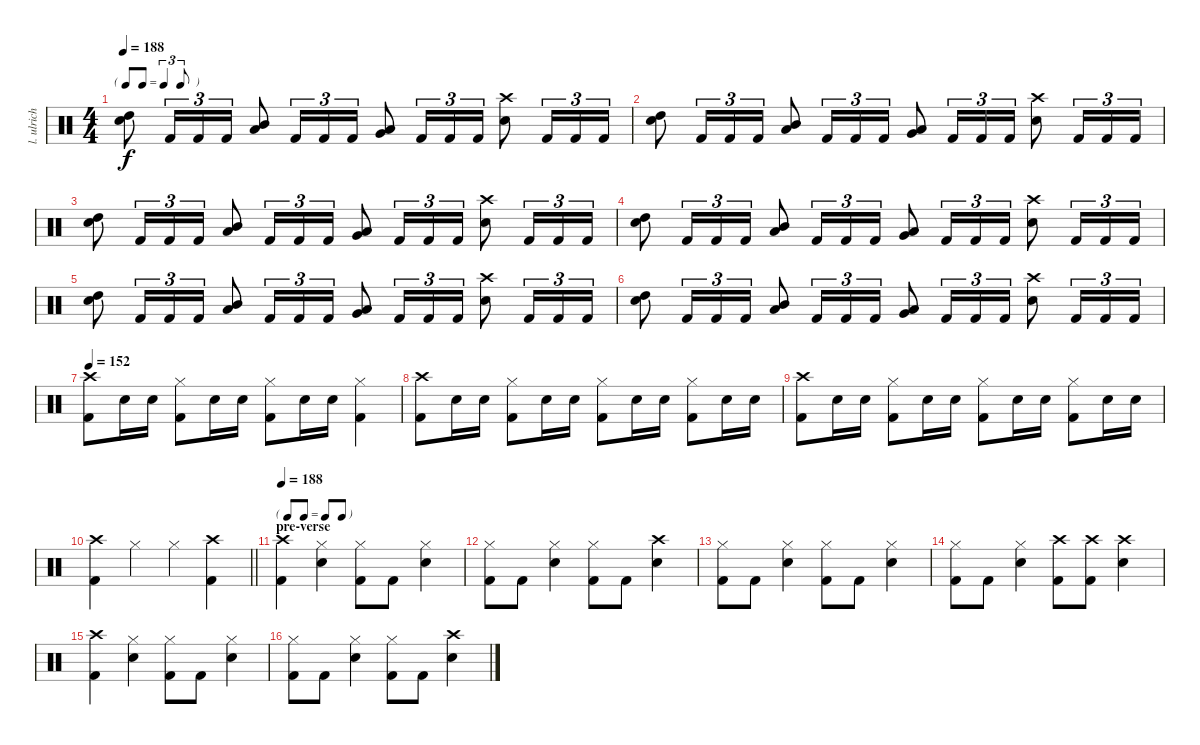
\track ("l. ulrich - drums" "l. ulrich ") {instrument percussion}
\staff {score}
\articulation defaults
\ts (4 4)
\tf triplet8th
\tempo 188
\clef neutral
\ks c
("Snare (hit) 2" "High Tom (hit)").8{dy f} "Kick (hit) 2".16{tu (3 2)} "Kick (hit) 2".16{tu (3 2)} "Kick (hit) 2".16{tu (3 2)} ("Mid Tom (hit)" "Low Tom (hit)").8 "Kick (hit) 2".16{tu (3 2)} "Kick (hit) 2".16{tu (3 2)} "Kick (hit) 2".16{tu (3 2)} ("Low Tom (hit)" "Very Low Tom (hit)").8 "Kick (hit) 2".16{tu (3 2)} "Kick (hit) 2".16{tu (3 2)} "Kick (hit) 2".16{tu (3 2)} ("Crash high (hit)" "Snare (hit) 2").8 "Kick (hit) 2".16{tu (3 2)} "Kick (hit) 2".16{tu (3 2)} "Kick (hit) 2".16{tu (3 2)} |
("Snare (hit) 2" "High Tom (hit)").8 "Kick (hit) 2".16{tu (3 2)} "Kick (hit) 2".16{tu (3 2)} "Kick (hit) 2".16{tu (3 2)} ("Mid Tom (hit)" "Low Tom (hit)").8 "Kick (hit) 2".16{tu (3 2)} "Kick (hit) 2".16{tu (3 2)} "Kick (hit) 2".16{tu (3 2)} ("Low Tom (hit)" "Very Low Tom (hit)").8 "Kick (hit) 2".16{tu (3 2)} "Kick (hit) 2".16{tu (3 2)} "Kick (hit) 2".16{tu (3 2)} ("Crash high (hit)" "Snare (hit) 2").8 "Kick (hit) 2".16{tu (3 2)} "Kick (hit) 2".16{tu (3 2)} "Kick (hit) 2".16{tu (3 2)} |
("Snare (hit) 2" "High Tom (hit)").8 "Kick (hit) 2".16{tu (3 2)} "Kick (hit) 2".16{tu (3 2)} "Kick (hit) 2".16{tu (3 2)} ("Mid Tom (hit)" "Low Tom (hit)").8 "Kick (hit) 2".16{tu (3 2)} "Kick (hit) 2".16{tu (3 2)} "Kick (hit) 2".16{tu (3 2)} ("Low Tom (hit)" "Very Low Tom (hit)").8 "Kick (hit) 2".16{tu (3 2)} "Kick (hit) 2".16{tu (3 2)} "Kick (hit) 2".16{tu (3 2)} ("Crash high (hit)" "Snare (hit) 2").8 "Kick (hit) 2".16{tu (3 2)} "Kick (hit) 2".16{tu (3 2)} "Kick (hit) 2".16{tu (3 2)} |
("Snare (hit) 2" "High Tom (hit)").8 "Kick (hit) 2".16{tu (3 2)} "Kick (hit) 2".16{tu (3 2)} "Kick (hit) 2".16{tu (3 2)} ("Mid Tom (hit)" "Low Tom (hit)").8 "Kick (hit) 2".16{tu (3 2)} "Kick (hit) 2".16{tu (3 2)} "Kick (hit) 2".16{tu (3 2)} ("Low Tom (hit)" "Very Low Tom (hit)").8 "Kick (hit) 2".16{tu (3 2)} "Kick (hit) 2".16{tu (3 2)} "Kick (hit) 2".16{tu (3 2)} ("Crash high (hit)" "Snare (hit) 2").8 "Kick (hit) 2".16{tu (3 2)} "Kick (hit) 2".16{tu (3 2)} "Kick (hit) 2".16{tu (3 2)} |
("Snare (hit) 2" "High Tom (hit)").8 "Kick (hit) 2".16{tu (3 2)} "Kick (hit) 2".16{tu (3 2)} "Kick (hit) 2".16{tu (3 2)} ("Mid Tom (hit)" "Low Tom (hit)").8 "Kick (hit) 2".16{tu (3 2)} "Kick (hit) 2".16{tu (3 2)} "Kick (hit) 2".16{tu (3 2)} ("Low Tom (hit)" "Very Low Tom (hit)").8 "Kick (hit) 2".16{tu (3 2)} "Kick (hit) 2".16{tu (3 2)} "Kick (hit) 2".16{tu (3 2)} ("Crash high (hit)" "Snare (hit) 2").8 "Kick (hit) 2".16{tu (3 2)} "Kick (hit) 2".16{tu (3 2)} "Kick (hit) 2".16{tu (3 2)} |
("Snare (hit) 2" "High Tom (hit)").8 "Kick (hit) 2".16{tu (3 2)} "Kick (hit) 2".16{tu (3 2)} "Kick (hit) 2".16{tu (3 2)} ("Mid Tom (hit)" "Low Tom (hit)").8 "Kick (hit) 2".16{tu (3 2)} "Kick (hit) 2".16{tu (3 2)} "Kick (hit) 2".16{tu (3 2)} ("Low Tom (hit)" "Very Low Tom (hit)").8 "Kick (hit) 2".16{tu (3 2)} "Kick (hit) 2".16{tu (3 2)} "Kick (hit) 2".16{tu (3 2)} ("Crash high (hit)" "Snare (hit) 2").8 "Kick (hit) 2".16{tu (3 2)} "Kick (hit) 2".16{tu (3 2)} "Kick (hit) 2".16{tu (3 2)} |
\tempo 152
("Crash high (hit)" "Kick (hit) 2").8 "Snare (hit) 2".16 "Snare (hit) 2".16 ("Hi-Hat (closed)" "Kick (hit) 2").8 "Snare (hit) 2".16 "Snare (hit) 2".16 ("Hi-Hat (closed)" "Kick (hit) 2").8 "Snare (hit) 2".16 "Snare (hit) 2".16 ("Hi-Hat (closed)" "Kick (hit) 2").4 |
("Crash high (hit)" "Kick (hit) 2").8 "Snare (hit) 2".16 "Snare (hit) 2".16 ("Hi-Hat (closed)" "Kick (hit) 2").8 "Snare (hit) 2".16 "Snare (hit) 2".16 ("Hi-Hat (closed)" "Kick (hit) 2").8 "Snare (hit) 2".16 "Snare (hit) 2".16 ("Hi-Hat (closed)" "Kick (hit) 2").8 "Snare (hit) 2".16 "Snare (hit) 2".16 |
("Crash high (hit)" "Kick (hit) 2").8 "Snare (hit) 2".16 "Snare (hit) 2".16 ("Hi-Hat (closed)" "Kick (hit) 2").8 "Snare (hit) 2".16 "Snare (hit) 2".16 ("Hi-Hat (closed)" "Kick (hit) 2").8 "Snare (hit) 2".16 "Snare (hit) 2".16 ("Hi-Hat (closed)" "Kick (hit) 2").8 "Snare (hit) 2".16 "Snare (hit) 2".16 |
\barLineRight lightlight
("Crash high (hit)" "Kick (hit) 2").4 "Hi-Hat (closed)".4 "Hi-Hat (closed)".4 ("Crash high (hit)" "Kick (hit) 2").4 |
\tf none
\section ("" "pre-verse")
\tempo 188
("Crash high (hit)" "Kick (hit) 2").4 ("Hi-Hat (closed)" "Snare (hit) 2").4 ("Hi-Hat (closed)" "Kick (hit) 2").8 "Kick (hit) 2".8 ("Hi-Hat (closed)" "Snare (hit) 2").4 |
("Hi-Hat (closed)" "Kick (hit) 2").8 "Kick (hit) 2".8 ("Hi-Hat (closed)" "Snare (hit) 2").4 ("Hi-Hat (closed)" "Kick (hit) 2").8 "Kick (hit) 2".8 ("Crash high (hit)" "Snare (hit) 2").4 |
("Hi-Hat (closed)" "Kick (hit) 2").8 "Kick (hit) 2".8 ("Hi-Hat (closed)" "Snare (hit) 2").4 ("Hi-Hat (closed)" "Kick (hit) 2").8 "Kick (hit) 2".8 ("Hi-Hat (closed)" "Snare (hit) 2").4 |
("Hi-Hat (closed)" "Kick (hit) 2").8 "Kick (hit) 2".8 ("Hi-Hat (closed)" "Snare (hit) 2").4 ("Crash high (hit)" "Kick (hit) 2").8 ("Crash high (hit)" "Kick (hit) 2").8 ("Crash high (hit)" "Snare (hit) 2").4 |
("Crash high (hit)" "Kick (hit) 2").4 ("Hi-Hat (closed)" "Snare (hit) 2").4 ("Hi-Hat (closed)" "Kick (hit) 2").8 "Kick (hit) 2".8 ("Hi-Hat (closed)" "Snare (hit) 2").4 |
("Hi-Hat (closed)" "Kick (hit) 2").8 "Kick (hit) 2".8 ("Hi-Hat (closed)" "Snare (hit) 2").4 ("Hi-Hat (closed)" "Kick (hit) 2").8 "Kick (hit) 2".8 ("Crash high (hit)" "Snare (hit) 2").4
